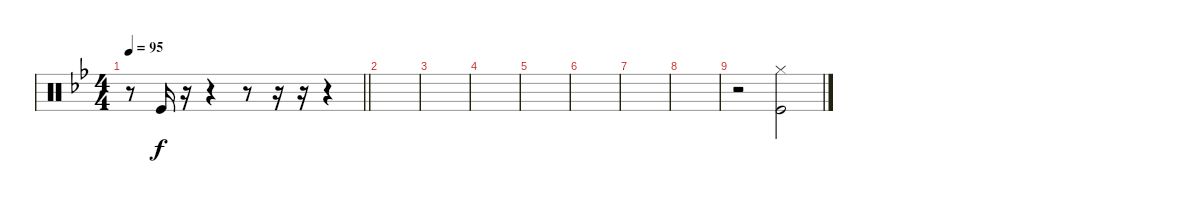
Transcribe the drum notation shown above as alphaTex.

\track "" {instrument percussion}
\staff {score}
\articulation defaults
\ts (4 4)
\tempo 95
\clef neutral
\barLineRight lightlight
\ks bb
r.8{dy f} "Kick (hit)".16 r.16 r.4 r.8 r.16 r.16 r.4 |
|
|
|
|
|
|
|
r.2 ("Hi-Hat (closed)" "Kick (hit)").2
